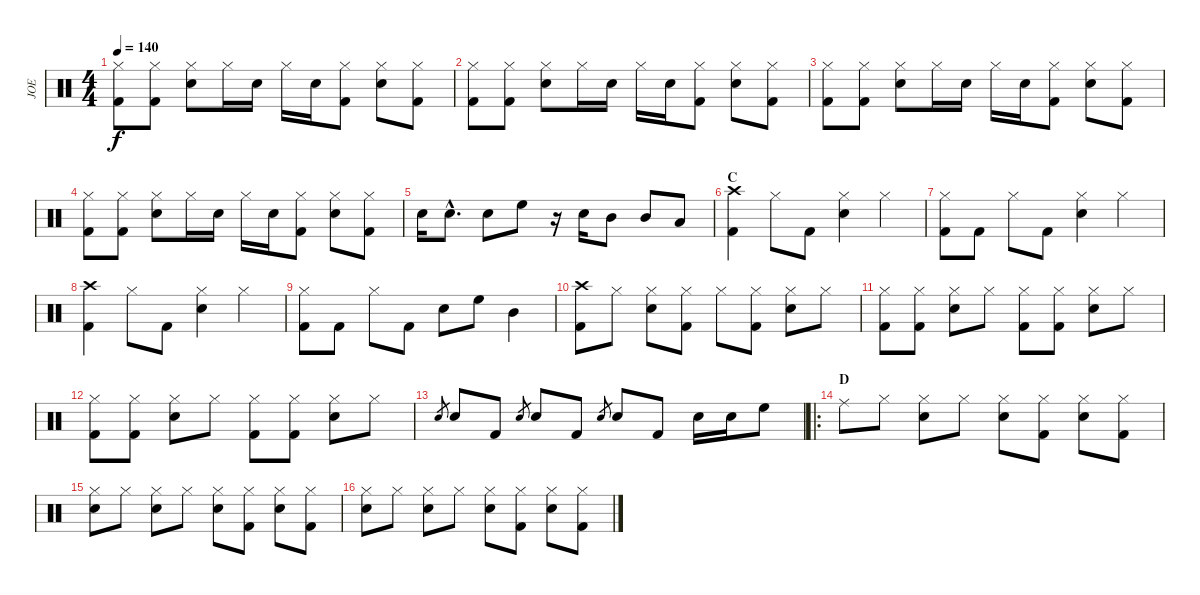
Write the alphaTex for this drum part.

\track ("JOE" "JOE") {instrument percussion}
\staff {score}
\articulation defaults
\ts (4 4)
\tempo 140
\clef neutral
\ks c
("Hi-Hat (closed)" "Kick (hit) 2").8{dy f} ("Hi-Hat (closed)" "Kick (hit) 2").8 ("Hi-Hat (closed)" "Snare (hit) 2").8 "Hi-Hat (closed)".16 "Snare (hit) 2".16 "Hi-Hat (closed)".16 "Snare (hit) 2".16 ("Hi-Hat (closed)" "Kick (hit) 2").8 ("Hi-Hat (closed)" "Snare (hit) 2").8 ("Hi-Hat (closed)" "Kick (hit) 2").8 |
("Hi-Hat (closed)" "Kick (hit) 2").8 ("Hi-Hat (closed)" "Kick (hit) 2").8 ("Hi-Hat (closed)" "Snare (hit) 2").8 "Hi-Hat (closed)".16 "Snare (hit) 2".16 "Hi-Hat (closed)".16 "Snare (hit) 2".16 ("Hi-Hat (closed)" "Kick (hit) 2").8 ("Hi-Hat (closed)" "Snare (hit) 2").8 ("Hi-Hat (closed)" "Kick (hit) 2").8 |
("Hi-Hat (closed)" "Kick (hit) 2").8 ("Hi-Hat (closed)" "Kick (hit) 2").8 ("Hi-Hat (closed)" "Snare (hit) 2").8 "Hi-Hat (closed)".16 "Snare (hit) 2".16 "Hi-Hat (closed)".16 "Snare (hit) 2".16 ("Hi-Hat (closed)" "Kick (hit) 2").8 ("Hi-Hat (closed)" "Snare (hit) 2").8 ("Hi-Hat (closed)" "Kick (hit) 2").8 |
("Hi-Hat (closed)" "Kick (hit) 2").8 ("Hi-Hat (closed)" "Kick (hit) 2").8 ("Hi-Hat (closed)" "Snare (hit) 2").8 "Hi-Hat (closed)".16 "Snare (hit) 2".16 "Hi-Hat (closed)".16 "Snare (hit) 2".16 ("Hi-Hat (closed)" "Kick (hit) 2").8 ("Hi-Hat (closed)" "Snare (hit) 2").8 ("Hi-Hat (closed)" "Kick (hit) 2").8 |
"Snare (hit) 2".16 "Snare (hit) 2"{hac}.8{d} "Snare (hit) 2".8 "High Floor Tom (hit)".8 r.16 "Snare (hit) 2".16 "Mid Tom (hit)".8 "Mid Tom (hit)".8 "Low Tom (hit)".8 |
\section ("" "C")
("Crash high (hit)" "Kick (hit) 2").4 "Hi-Hat (closed)".8 "Kick (hit) 2".8 ("Hi-Hat (closed)" "Snare (hit) 2").4 "Hi-Hat (closed)".4 |
("Hi-Hat (closed)" "Kick (hit) 2").8 "Kick (hit) 2".8 "Hi-Hat (closed)".8 "Kick (hit) 2".8 ("Hi-Hat (closed)" "Snare (hit) 2").4 "Hi-Hat (closed)".4 |
("Crash high (hit)" "Kick (hit) 2").4 "Hi-Hat (closed)".8 "Kick (hit) 2".8 ("Hi-Hat (closed)" "Snare (hit) 2").4 "Hi-Hat (closed)".4 |
("Hi-Hat (closed)" "Kick (hit) 2").8 "Kick (hit) 2".8 "Hi-Hat (closed)".8 "Kick (hit) 2".8 "Snare (hit) 2".8 "High Floor Tom (hit)".8 "Mid Tom (hit)".4 |
("Crash high (hit)" "Kick (hit) 2").8 "Hi-Hat (closed)".8 ("Hi-Hat (closed)" "Snare (hit) 2").8 ("Hi-Hat (closed)" "Kick (hit) 2").8 "Hi-Hat (closed)".8 ("Hi-Hat (closed)" "Kick (hit) 2").8 ("Hi-Hat (closed)" "Snare (hit) 2").8 "Hi-Hat (closed)".8 |
("Hi-Hat (closed)" "Kick (hit) 2").8 ("Hi-Hat (closed)" "Kick (hit) 2").8 ("Hi-Hat (closed)" "Snare (hit) 2").8 "Hi-Hat (closed)".8 ("Hi-Hat (closed)" "Kick (hit) 2").8 ("Hi-Hat (closed)" "Kick (hit) 2").8 ("Hi-Hat (closed)" "Snare (hit) 2").8 "Hi-Hat (closed)".8 |
("Hi-Hat (closed)" "Kick (hit) 2").8 ("Hi-Hat (closed)" "Kick (hit) 2").8 ("Hi-Hat (closed)" "Snare (hit) 2").8 "Hi-Hat (closed)".8 ("Hi-Hat (closed)" "Kick (hit) 2").8 ("Hi-Hat (closed)" "Kick (hit) 2").8 ("Hi-Hat (closed)" "Snare (hit) 2").8 "Hi-Hat (closed)".8 |
"Snare (hit) 2".8{gr} "Snare (hit) 2".8 "Kick (hit) 2".8 "Snare (hit) 2".8{gr} "Snare (hit) 2".8 "Kick (hit) 2".8 "Snare (hit) 2".8{gr} "Snare (hit) 2".8 "Kick (hit) 2".8 "Snare (hit) 2".16 "Snare (hit) 2".16 "High Floor Tom (hit)".8 |
\ro
\section ("" "D")
"Ride (middle)".8 "Hi-Hat (closed)".8 ("Hi-Hat (closed)" "Snare (hit) 2").8 "Hi-Hat (closed)".8 ("Hi-Hat (closed)" "Snare (hit) 2").8 ("Hi-Hat (closed)" "Kick (hit) 2").8 ("Hi-Hat (closed)" "Snare (hit) 2").8 ("Hi-Hat (closed)" "Kick (hit) 2").8 |
("Hi-Hat (closed)" "Snare (hit) 2").8 "Hi-Hat (closed)".8 ("Hi-Hat (closed)" "Snare (hit) 2").8 "Hi-Hat (closed)".8 ("Hi-Hat (closed)" "Snare (hit) 2").8 ("Hi-Hat (closed)" "Kick (hit) 2").8 ("Hi-Hat (closed)" "Snare (hit) 2").8 ("Hi-Hat (closed)" "Kick (hit) 2").8 |
("Hi-Hat (closed)" "Snare (hit) 2").8 "Hi-Hat (closed)".8 ("Hi-Hat (closed)" "Snare (hit) 2").8 "Hi-Hat (closed)".8 ("Hi-Hat (closed)" "Snare (hit) 2").8 ("Hi-Hat (closed)" "Kick (hit) 2").8 ("Hi-Hat (closed)" "Snare (hit) 2").8 ("Hi-Hat (closed)" "Kick (hit) 2").8
